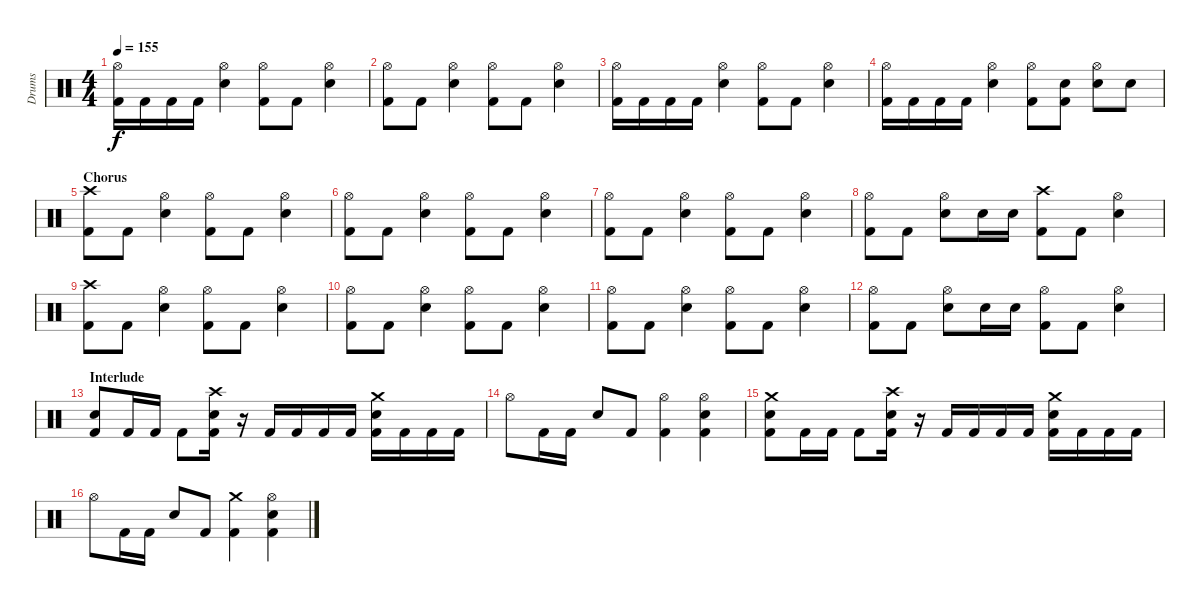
\track ("Drums" "Drums") {instrument percussion}
\staff {score}
\articulation defaults
\ts (4 4)
\tempo 155
\clef neutral
\ks c
("Hi-Hat (open)" "Kick (hit) 2").16{dy f} "Kick (hit) 2".16 "Kick (hit) 2".16 "Kick (hit) 2".16 ("Hi-Hat (open)" "Snare (hit) 2").4 ("Hi-Hat (open)" "Kick (hit) 2").8 "Kick (hit) 2".8 ("Hi-Hat (open)" "Snare (hit) 2").4 |
("Hi-Hat (open)" "Kick (hit) 2").8 "Kick (hit) 2".8 ("Hi-Hat (open)" "Snare (hit) 2").4 ("Hi-Hat (open)" "Kick (hit) 2").8 "Kick (hit) 2".8 ("Hi-Hat (open)" "Snare (hit) 2").4 |
("Hi-Hat (open)" "Kick (hit) 2").16 "Kick (hit) 2".16 "Kick (hit) 2".16 "Kick (hit) 2".16 ("Hi-Hat (open)" "Snare (hit) 2").4 ("Hi-Hat (open)" "Kick (hit) 2").8 "Kick (hit) 2".8 ("Hi-Hat (open)" "Snare (hit) 2").4 |
("Hi-Hat (open)" "Kick (hit) 2").16 "Kick (hit) 2".16 "Kick (hit) 2".16 "Kick (hit) 2".16 ("Hi-Hat (open)" "Snare (hit) 2").4 ("Hi-Hat (open)" "Kick (hit) 2").8 ("Snare (hit) 2" "Kick (hit) 2").8 ("Hi-Hat (open)" "Snare (hit) 2").8 "Snare (hit) 2".8 |
\section ("" "Chorus")
("Crash high (hit)" "Kick (hit) 2").8 "Kick (hit) 2".8 ("Hi-Hat (open)" "Snare (hit) 2").4 ("Hi-Hat (open)" "Kick (hit) 2").8 "Kick (hit) 2".8 ("Hi-Hat (open)" "Snare (hit) 2").4 |
("Hi-Hat (open)" "Kick (hit) 2").8 "Kick (hit) 2".8 ("Hi-Hat (open)" "Snare (hit) 2").4 ("Hi-Hat (open)" "Kick (hit) 2").8 "Kick (hit) 2".8 ("Hi-Hat (open)" "Snare (hit) 2").4 |
("Hi-Hat (open)" "Kick (hit) 2").8 "Kick (hit) 2".8 ("Hi-Hat (open)" "Snare (hit) 2").4 ("Hi-Hat (open)" "Kick (hit) 2").8 "Kick (hit) 2".8 ("Hi-Hat (open)" "Snare (hit) 2").4 |
("Hi-Hat (open)" "Kick (hit) 2").8 "Kick (hit) 2".8 ("Hi-Hat (open)" "Snare (hit) 2").8 "Snare (hit) 2".16 "Snare (hit) 2".16 ("Crash high (hit)" "Kick (hit) 2").8 "Kick (hit) 2".8 ("Hi-Hat (open)" "Snare (hit) 2").4 |
("Crash high (hit)" "Kick (hit) 2").8 "Kick (hit) 2".8 ("Hi-Hat (open)" "Snare (hit) 2").4 ("Hi-Hat (open)" "Kick (hit) 2").8 "Kick (hit) 2".8 ("Hi-Hat (open)" "Snare (hit) 2").4 |
("Hi-Hat (open)" "Kick (hit) 2").8 "Kick (hit) 2".8 ("Hi-Hat (open)" "Snare (hit) 2").4 ("Hi-Hat (open)" "Kick (hit) 2").8 "Kick (hit) 2".8 ("Hi-Hat (open)" "Snare (hit) 2").4 |
("Hi-Hat (open)" "Kick (hit) 2").8 "Kick (hit) 2".8 ("Hi-Hat (open)" "Snare (hit) 2").4 ("Hi-Hat (open)" "Kick (hit) 2").8 "Kick (hit) 2".8 ("Hi-Hat (open)" "Snare (hit) 2").4 |
("Hi-Hat (open)" "Kick (hit) 2").8 "Kick (hit) 2".8 ("Hi-Hat (open)" "Snare (hit) 2").8 "Snare (hit) 2".16 "Snare (hit) 2".16 ("Hi-Hat (open)" "Kick (hit) 2").8 "Kick (hit) 2".8 ("Hi-Hat (open)" "Snare (hit) 2").4 |
\section ("" "Interlude")
("Snare (hit) 2" "Kick (hit) 2").8 "Kick (hit) 2".16 "Kick (hit) 2".16 "Kick (hit) 2".8 ("Crash high (hit)" "Snare (hit) 2" "Kick (hit) 2").16 r.16 "Kick (hit) 2".16 "Kick (hit) 2".16 "Kick (hit) 2".16 "Kick (hit) 2".16 ("Crash medium (hit)" "Snare (hit) 2" "Kick (hit) 2").16 "Kick (hit) 2".16 "Kick (hit) 2".16 "Kick (hit) 2".16 |
"Hi-Hat (open)".8 "Kick (hit) 2".16 "Kick (hit) 2".16 "Snare (hit) 2".8 "Kick (hit) 2".8 ("Hi-Hat (open)" "Kick (hit) 2").4 ("Hi-Hat (open)" "Snare (hit) 2" "Kick (hit) 2").4 |
("Crash medium (hit)" "Snare (hit) 2" "Kick (hit) 2").8 "Kick (hit) 2".16 "Kick (hit) 2".16 "Kick (hit) 2".8 ("Crash high (hit)" "Snare (hit) 2" "Kick (hit) 2").16 r.16 "Kick (hit) 2".16 "Kick (hit) 2".16 "Kick (hit) 2".16 "Kick (hit) 2".16 ("Crash medium (hit)" "Snare (hit) 2" "Kick (hit) 2").16 "Kick (hit) 2".16 "Kick (hit) 2".16 "Kick (hit) 2".16 |
"Hi-Hat (open)".8 "Kick (hit) 2".16 "Kick (hit) 2".16 "Snare (hit) 2".8 "Kick (hit) 2".8 ("Crash medium (hit)" "Kick (hit) 2").4 ("Hi-Hat (open)" "Snare (hit) 2" "Kick (hit) 2").4
